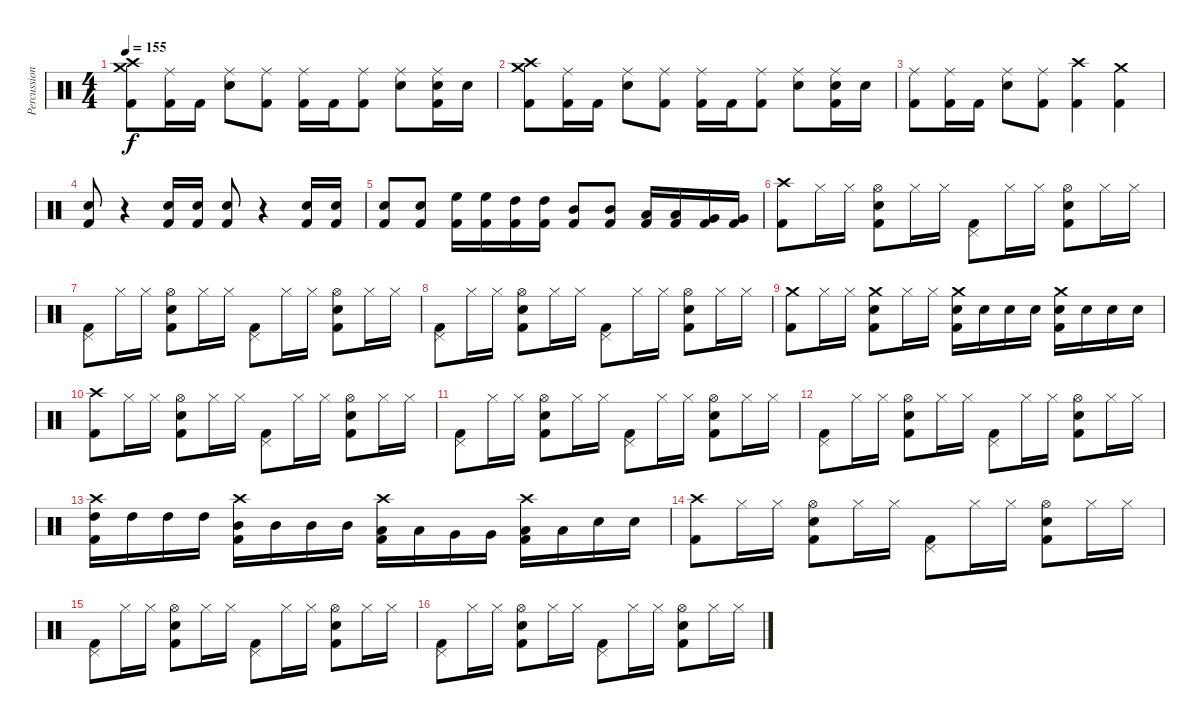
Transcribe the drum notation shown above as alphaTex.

\track ("Percussion" "Percussion") {instrument percussion}
\staff {score}
\articulation defaults
\ts (4 4)
\tempo 155
\clef neutral
\ks c
("Crash medium (hit)" "Crash high (hit)" "Kick (hit) 2").8{dy f} ("Ride (middle)" "Kick (hit) 2").16 "Kick (hit) 2".16 ("Ride (middle)" "Electric Snare (hit)").8 ("Ride (middle)" "Kick (hit) 2").8 ("Ride (middle)" "Kick (hit) 2").16 "Kick (hit) 2".16 ("Ride (middle)" "Kick (hit) 2").8 ("Ride (middle)" "Electric Snare (hit)").8 ("Ride (middle)" "Electric Snare (hit)" "Kick (hit) 2").16 "Electric Snare (hit)".16 |
("Crash medium (hit)" "Crash high (hit)" "Kick (hit) 2").8 ("Ride (middle)" "Kick (hit) 2").16 "Kick (hit) 2".16 ("Ride (middle)" "Electric Snare (hit)").8 ("Ride (middle)" "Kick (hit) 2").8 ("Ride (middle)" "Kick (hit) 2").16 "Kick (hit) 2".16 ("Ride (middle)" "Kick (hit) 2").8 ("Ride (middle)" "Electric Snare (hit)").8 ("Ride (middle)" "Electric Snare (hit)" "Kick (hit) 2").16 "Electric Snare (hit)".16 |
("Ride (middle)" "Kick (hit) 2").8 ("Ride (middle)" "Kick (hit) 2").16 "Kick (hit) 2".16 ("Ride (middle)" "Electric Snare (hit)").8 ("Ride (middle)" "Kick (hit) 2").8 ("Crash high (hit)" "Kick (hit) 2").4 ("Crash medium (hit)" "Kick (hit) 2").4 |
("Electric Snare (hit)" "Kick (hit) 2").8 r.4 ("Electric Snare (hit)" "Kick (hit) 2").16 ("Electric Snare (hit)" "Kick (hit) 2").16 ("Electric Snare (hit)" "Kick (hit) 2").8 r.4 ("Electric Snare (hit)" "Kick (hit) 2").16 ("Electric Snare (hit)" "Kick (hit) 2").16 |
("Electric Snare (hit)" "Kick (hit) 2").8 ("Electric Snare (hit)" "Kick (hit) 2").8 ("High Floor Tom (hit)" "Kick (hit) 2").16 ("High Floor Tom (hit)" "Kick (hit) 2").16 ("High Tom (hit)" "Kick (hit) 2").16 ("High Tom (hit)" "Kick (hit) 2").16 ("Mid Tom (hit)" "Kick (hit) 2").8 ("Mid Tom (hit)" "Kick (hit) 2").8 ("Low Tom (hit)" "Kick (hit) 2").16 ("Low Tom (hit)" "Kick (hit) 2").16 ("Very Low Tom (hit)" "Kick (hit) 2").16 ("Very Low Tom (hit)" "Kick (hit) 2").16 |
("Crash high (hit)" "Kick (hit) 2").8 "Hi-Hat (closed)".16 "Hi-Hat (closed)".16 ("Hi-Hat (open)" "Electric Snare (hit)" "Kick (hit) 2").8 "Hi-Hat (closed)".16 "Hi-Hat (closed)".16 ("Pedal Hi-Hat (hit)" "Kick (hit) 2").8 "Hi-Hat (closed)".16 "Hi-Hat (closed)".16 ("Hi-Hat (open)" "Electric Snare (hit)" "Kick (hit) 2").8 "Hi-Hat (closed)".16 "Hi-Hat (closed)".16 |
("Pedal Hi-Hat (hit)" "Kick (hit) 2").8 "Hi-Hat (closed)".16 "Hi-Hat (closed)".16 ("Hi-Hat (open)" "Electric Snare (hit)" "Kick (hit) 2").8 "Hi-Hat (closed)".16 "Hi-Hat (closed)".16 ("Pedal Hi-Hat (hit)" "Kick (hit) 2").8 "Hi-Hat (closed)".16 "Hi-Hat (closed)".16 ("Hi-Hat (open)" "Electric Snare (hit)" "Kick (hit) 2").8 "Hi-Hat (closed)".16 "Hi-Hat (closed)".16 |
("Pedal Hi-Hat (hit)" "Kick (hit) 2").8 "Hi-Hat (closed)".16 "Hi-Hat (closed)".16 ("Hi-Hat (open)" "Electric Snare (hit)" "Kick (hit) 2").8 "Hi-Hat (closed)".16 "Hi-Hat (closed)".16 ("Pedal Hi-Hat (hit)" "Kick (hit) 2").8 "Hi-Hat (closed)".16 "Hi-Hat (closed)".16 ("Hi-Hat (open)" "Electric Snare (hit)" "Kick (hit) 2").8 "Hi-Hat (closed)".16 "Hi-Hat (closed)".16 |
("Crash medium (hit)" "Kick (hit) 2").8 "Hi-Hat (closed)".16 "Hi-Hat (closed)".16 ("Crash medium (hit)" "Electric Snare (hit)" "Kick (hit) 2").8 "Hi-Hat (closed)".16 "Hi-Hat (closed)".16 ("Crash medium (hit)" "Electric Snare (hit)" "Kick (hit) 2").16 "Electric Snare (hit)".16 "Electric Snare (hit)".16 "Electric Snare (hit)".16 ("Crash medium (hit)" "Electric Snare (hit)" "Kick (hit) 2").16 "Electric Snare (hit)".16 "Electric Snare (hit)".16 "Electric Snare (hit)".16 |
("Crash high (hit)" "Kick (hit) 2").8 "Hi-Hat (closed)".16 "Hi-Hat (closed)".16 ("Hi-Hat (open)" "Electric Snare (hit)" "Kick (hit) 2").8 "Hi-Hat (closed)".16 "Hi-Hat (closed)".16 ("Pedal Hi-Hat (hit)" "Kick (hit) 2").8 "Hi-Hat (closed)".16 "Hi-Hat (closed)".16 ("Hi-Hat (open)" "Electric Snare (hit)" "Kick (hit) 2").8 "Hi-Hat (closed)".16 "Hi-Hat (closed)".16 |
("Pedal Hi-Hat (hit)" "Kick (hit) 2").8 "Hi-Hat (closed)".16 "Hi-Hat (closed)".16 ("Hi-Hat (open)" "Electric Snare (hit)" "Kick (hit) 2").8 "Hi-Hat (closed)".16 "Hi-Hat (closed)".16 ("Pedal Hi-Hat (hit)" "Kick (hit) 2").8 "Hi-Hat (closed)".16 "Hi-Hat (closed)".16 ("Hi-Hat (open)" "Electric Snare (hit)" "Kick (hit) 2").8 "Hi-Hat (closed)".16 "Hi-Hat (closed)".16 |
("Pedal Hi-Hat (hit)" "Kick (hit) 2").8 "Hi-Hat (closed)".16 "Hi-Hat (closed)".16 ("Hi-Hat (open)" "Electric Snare (hit)" "Kick (hit) 2").8 "Hi-Hat (closed)".16 "Hi-Hat (closed)".16 ("Pedal Hi-Hat (hit)" "Kick (hit) 2").8 "Hi-Hat (closed)".16 "Hi-Hat (closed)".16 ("Hi-Hat (open)" "Electric Snare (hit)" "Kick (hit) 2").8 "Hi-Hat (closed)".16 "Hi-Hat (closed)".16 |
("Crash high (hit)" "High Tom (hit)" "Kick (hit) 2").16 "High Tom (hit)".16 "High Tom (hit)".16 "High Tom (hit)".16 ("Crash high (hit)" "Mid Tom (hit)" "Kick (hit) 2").16 "Mid Tom (hit)".16 "Mid Tom (hit)".16 "Mid Tom (hit)".16 ("Crash high (hit)" "Low Tom (hit)" "Kick (hit) 2").16 "Low Tom (hit)".16 "Very Low Tom (hit)".16 "Very Low Tom (hit)".16 ("Crash high (hit)" "Low Floor Tom (hit)" "Kick (hit) 2").16 "Low Floor Tom (hit)".16 "Electric Snare (hit)".16 "Electric Snare (hit)".16 |
("Crash high (hit)" "Kick (hit) 2").8 "Hi-Hat (closed)".16 "Hi-Hat (closed)".16 ("Hi-Hat (open)" "Electric Snare (hit)" "Kick (hit) 2").8 "Hi-Hat (closed)".16 "Hi-Hat (closed)".16 ("Pedal Hi-Hat (hit)" "Kick (hit) 2").8 "Hi-Hat (closed)".16 "Hi-Hat (closed)".16 ("Hi-Hat (open)" "Electric Snare (hit)" "Kick (hit) 2").8 "Hi-Hat (closed)".16 "Hi-Hat (closed)".16 |
("Pedal Hi-Hat (hit)" "Kick (hit) 2").8 "Hi-Hat (closed)".16 "Hi-Hat (closed)".16 ("Hi-Hat (open)" "Electric Snare (hit)" "Kick (hit) 2").8 "Hi-Hat (closed)".16 "Hi-Hat (closed)".16 ("Pedal Hi-Hat (hit)" "Kick (hit) 2").8 "Hi-Hat (closed)".16 "Hi-Hat (closed)".16 ("Hi-Hat (open)" "Electric Snare (hit)" "Kick (hit) 2").8 "Hi-Hat (closed)".16 "Hi-Hat (closed)".16 |
("Pedal Hi-Hat (hit)" "Kick (hit) 2").8 "Hi-Hat (closed)".16 "Hi-Hat (closed)".16 ("Hi-Hat (open)" "Electric Snare (hit)" "Kick (hit) 2").8 "Hi-Hat (closed)".16 "Hi-Hat (closed)".16 ("Pedal Hi-Hat (hit)" "Kick (hit) 2").8 "Hi-Hat (closed)".16 "Hi-Hat (closed)".16 ("Hi-Hat (open)" "Electric Snare (hit)" "Kick (hit) 2").8 "Hi-Hat (closed)".16 "Hi-Hat (closed)".16
